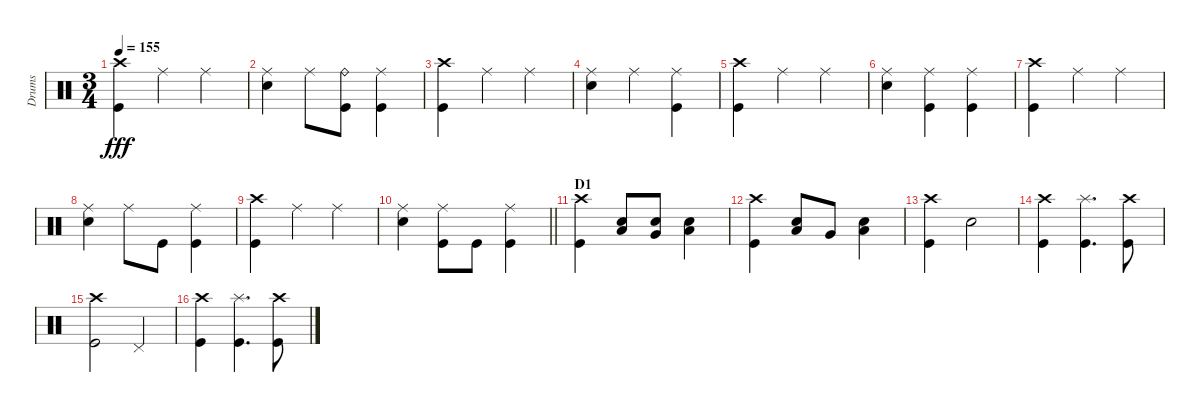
\track ("Drums" "Drums") {instrument percussion}
\staff {score}
\articulation defaults
\ts (3 4)
\tempo 155
\clef neutral
\ks c
("Crash high (hit)" "Kick (hit)").4{dy fff} "Ride (middle)".4 "Ride (middle)".4 |
("Ride (middle)" "Snare (hit) 2").4 "Ride (middle)".8 ("Ride (bell)" "Kick (hit)").8 ("Ride (middle)" "Kick (hit)").4 |
("Crash high (hit)" "Kick (hit)").4 "Ride (middle)".4 "Ride (middle)".4 |
("Ride (middle)" "Snare (hit) 2").4 "Ride (middle)".4 ("Ride (middle)" "Kick (hit)").4 |
("Crash high (hit)" "Kick (hit)").4 "Ride (middle)".4 "Ride (middle)".4 |
("Ride (middle)" "Snare (hit) 2").4 ("Ride (middle)" "Kick (hit)").4 ("Ride (middle)" "Kick (hit)").4 |
("Crash high (hit)" "Kick (hit)").4 "Ride (middle)".4 "Ride (middle)".4 |
("Ride (middle)" "Snare (hit) 2").4 "Ride (middle)".8 "Kick (hit)".8 ("Ride (middle)" "Kick (hit)").4 |
("Crash high (hit)" "Kick (hit)").4 "Ride (middle)".4 "Ride (middle)".4 |
\barLineRight lightlight
("Ride (middle)" "Snare (hit) 2").4 ("Ride (middle)" "Kick (hit)").8 "Kick (hit)".8 ("Ride (middle)" "Kick (hit)").4 |
\section ("" "D1")
("Crash high (hit)" "Kick (hit)").4 ("Low Tom (hit)" "Hand Clap (hit)").8 ("Very Low Tom (hit)" "Hand Clap (hit)").8 ("Low Floor Tom (hit)" "Hand Clap (hit)").4 |
("Crash high (hit)" "Kick (hit)").4 ("Low Tom (hit)" "Hand Clap (hit)").8 "Very Low Tom (hit)".8 ("Low Tom (hit)" "Hand Clap (hit)").4 |
("Crash high (hit)" "Kick (hit)").4 "Hand Clap (hit)".2 |
("Crash high (hit)" "Kick (hit)").4 ("Splash (hit)" "Kick (hit)").4{d} ("Crash high (hit)" "Kick (hit)").8 |
("Crash high (hit)" "Kick (hit)").2 "Pedal Hi-Hat (hit)".4 |
("Crash high (hit)" "Kick (hit)").4 ("Splash (hit)" "Kick (hit)").4{d} ("Crash high (hit)" "Kick (hit)").8
